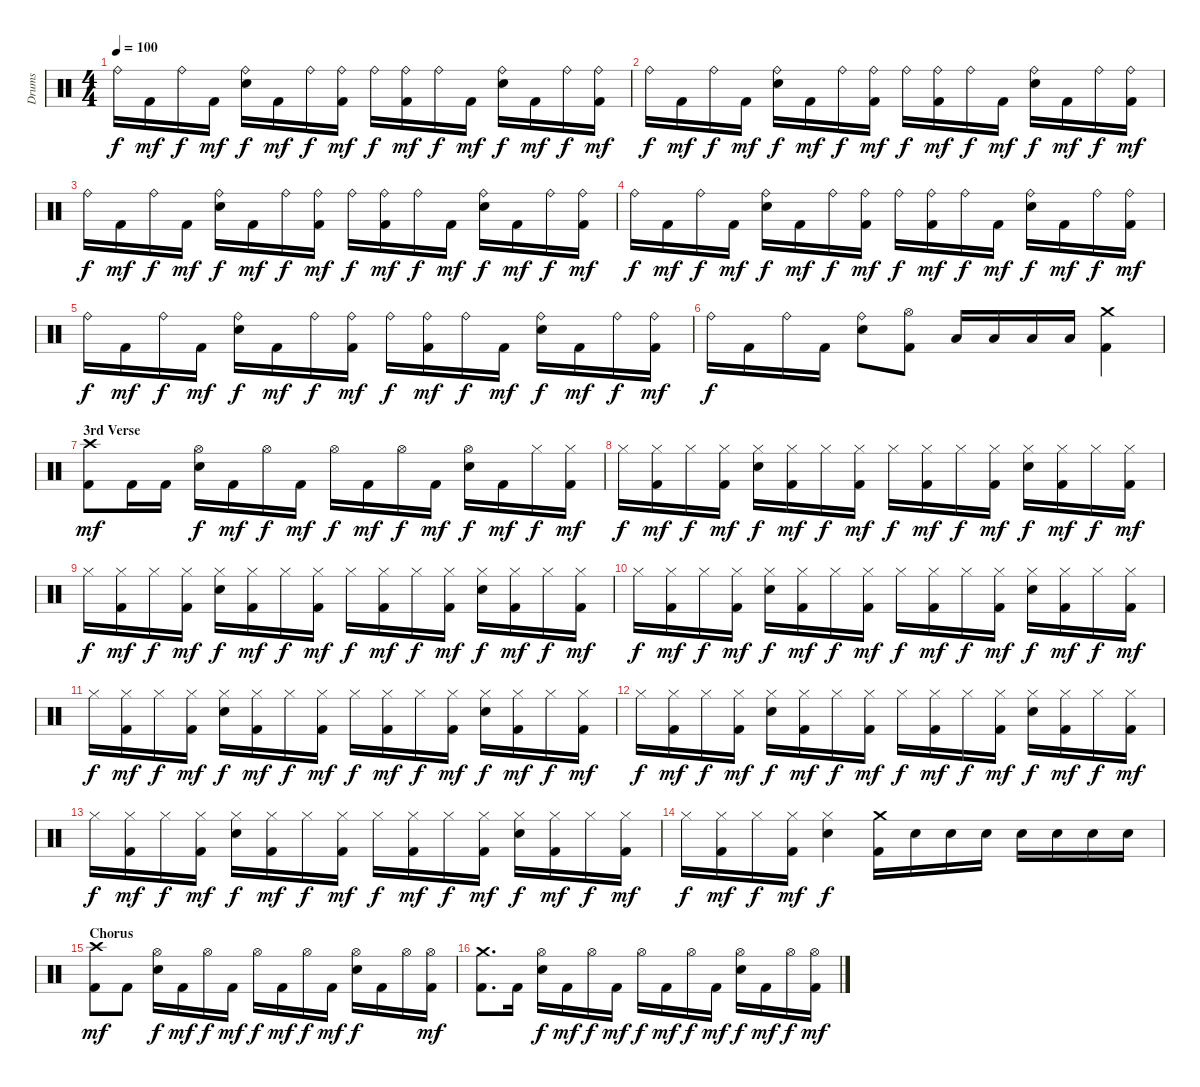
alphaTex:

\track ("Drums" "Drums") {instrument percussion}
\staff {score}
\articulation defaults
\ts (4 4)
\tempo 100
\clef neutral
\ks c "Ride (bell)".16{dy f} "Kick (hit) 2".16{dy mf} "Ride (bell)".16{dy f} "Kick (hit) 2".16{dy mf}
("Snare (hit) 2" "Ride (bell)").16{dy f} "Kick (hit) 2".16{dy mf} "Ride (bell)".16{dy f} ("Kick (hit) 2" "Ride (bell)").16{dy mf} "Ride (bell)".16{dy f} ("Kick (hit) 2" "Ride (bell)").16{dy mf} "Ride (bell)".16{dy f} "Kick (hit) 2".16{dy mf} ("Snare (hit) 2" "Ride (bell)").16{dy f} "Kick (hit) 2".16{dy mf} "Ride (bell)".16{dy f} ("Kick (hit) 2" "Ride (bell)").16{dy mf} |
"Ride (bell)".16{dy f} "Kick (hit) 2".16{dy mf} "Ride (bell)".16{dy f} "Kick (hit) 2".16{dy mf} ("Snare (hit) 2" "Ride (bell)").16{dy f} "Kick (hit) 2".16{dy mf} "Ride (bell)".16{dy f} ("Kick (hit) 2" "Ride (bell)").16{dy mf} "Ride (bell)".16{dy f} ("Kick (hit) 2" "Ride (bell)").16{dy mf} "Ride (bell)".16{dy f} "Kick (hit) 2".16{dy mf} ("Snare (hit) 2" "Ride (bell)").16{dy f} "Kick (hit) 2".16{dy mf} "Ride (bell)".16{dy f} ("Kick (hit) 2" "Ride (bell)").16{dy mf} |
"Ride (bell)".16{dy f} "Kick (hit) 2".16{dy mf} "Ride (bell)".16{dy f} "Kick (hit) 2".16{dy mf} ("Snare (hit) 2" "Ride (bell)").16{dy f} "Kick (hit) 2".16{dy mf} "Ride (bell)".16{dy f} ("Kick (hit) 2" "Ride (bell)").16{dy mf} "Ride (bell)".16{dy f} ("Kick (hit) 2" "Ride (bell)").16{dy mf} "Ride (bell)".16{dy f} "Kick (hit) 2".16{dy mf} ("Snare (hit) 2" "Ride (bell)").16{dy f} "Kick (hit) 2".16{dy mf} "Ride (bell)".16{dy f} ("Kick (hit) 2" "Ride (bell)").16{dy mf} |
"Ride (bell)".16{dy f} "Kick (hit) 2".16{dy mf} "Ride (bell)".16{dy f} "Kick (hit) 2".16{dy mf} ("Snare (hit) 2" "Ride (bell)").16{dy f} "Kick (hit) 2".16{dy mf} "Ride (bell)".16{dy f} ("Kick (hit) 2" "Ride (bell)").16{dy mf} "Ride (bell)".16{dy f} ("Kick (hit) 2" "Ride (bell)").16{dy mf} "Ride (bell)".16{dy f} "Kick (hit) 2".16{dy mf} ("Snare (hit) 2" "Ride (bell)").16{dy f} "Kick (hit) 2".16{dy mf} "Ride (bell)".16{dy f} ("Kick (hit) 2" "Ride (bell)").16{dy mf} |
"Ride (bell)".16{dy f} "Kick (hit) 2".16{dy mf} "Ride (bell)".16{dy f} "Kick (hit) 2".16{dy mf} ("Snare (hit) 2" "Ride (bell)").16{dy f} "Kick (hit) 2".16{dy mf} "Ride (bell)".16{dy f} ("Kick (hit) 2" "Ride (bell)").16{dy mf} "Ride (bell)".16{dy f} ("Kick (hit) 2" "Ride (bell)").16{dy mf} "Ride (bell)".16{dy f} "Kick (hit) 2".16{dy mf} ("Snare (hit) 2" "Ride (bell)").16{dy f} "Kick (hit) 2".16{dy mf} "Ride (bell)".16{dy f} ("Kick (hit) 2" "Ride (bell)").16{dy mf} |
"Ride (bell)".16{dy f} "Kick (hit) 2".16 "Ride (bell)".16 "Kick (hit) 2".16 ("Snare (hit) 2" "Ride (bell)").8 ("Kick (hit) 2" "Hi-Hat (open)").8 "Low Tom (hit)".16 "Low Tom (hit)".16 "Low Tom (hit)".16 "Low Tom (hit)".16 ("Kick (hit) 2" "Crash medium (hit)").4 |
\section ("" "3rd Verse")
("Kick (hit) 2" "Crash high (hit)").8{dy mf} "Kick (hit) 2".16 "Kick (hit) 2".16 ("Snare (hit) 2" "Hi-Hat (open)").16{dy f} "Kick (hit) 2".16{dy mf} "Hi-Hat (open)".16{dy f} "Kick (hit) 2".16{dy mf} "Hi-Hat (open)".16{dy f} "Kick (hit) 2".16{dy mf} "Hi-Hat (open)".16{dy f} "Kick (hit) 2".16{dy mf} ("Snare (hit) 2" "Hi-Hat (open)").16{dy f} "Kick (hit) 2".16{dy mf} "Hi-Hat (closed)".16{dy f} ("Kick (hit) 2" "Hi-Hat (closed)").16{dy mf} |
"Hi-Hat (closed)".16{dy f} ("Kick (hit) 2" "Hi-Hat (closed)").16{dy mf} "Hi-Hat (closed)".16{dy f} ("Kick (hit) 2" "Hi-Hat (closed)").16{dy mf} ("Snare (hit) 2" "Hi-Hat (closed)").16{dy f} ("Kick (hit) 2" "Hi-Hat (closed)").16{dy mf} "Hi-Hat (closed)".16{dy f} ("Kick (hit) 2" "Hi-Hat (closed)").16{dy mf} "Hi-Hat (closed)".16{dy f} ("Kick (hit) 2" "Hi-Hat (closed)").16{dy mf} "Hi-Hat (closed)".16{dy f} ("Kick (hit) 2" "Hi-Hat (closed)").16{dy mf} ("Snare (hit) 2" "Hi-Hat (closed)").16{dy f} ("Kick (hit) 2" "Hi-Hat (closed)").16{dy mf} "Hi-Hat (closed)".16{dy f} ("Kick (hit) 2" "Hi-Hat (closed)").16{dy mf} |
"Hi-Hat (closed)".16{dy f} ("Kick (hit) 2" "Hi-Hat (closed)").16{dy mf} "Hi-Hat (closed)".16{dy f} ("Kick (hit) 2" "Hi-Hat (closed)").16{dy mf} ("Snare (hit) 2" "Hi-Hat (closed)").16{dy f} ("Kick (hit) 2" "Hi-Hat (closed)").16{dy mf} "Hi-Hat (closed)".16{dy f} ("Kick (hit) 2" "Hi-Hat (closed)").16{dy mf} "Hi-Hat (closed)".16{dy f} ("Kick (hit) 2" "Hi-Hat (closed)").16{dy mf} "Hi-Hat (closed)".16{dy f} ("Kick (hit) 2" "Hi-Hat (closed)").16{dy mf} ("Snare (hit) 2" "Hi-Hat (closed)").16{dy f} ("Kick (hit) 2" "Hi-Hat (closed)").16{dy mf} "Hi-Hat (closed)".16{dy f} ("Kick (hit) 2" "Hi-Hat (closed)").16{dy mf} |
"Hi-Hat (closed)".16{dy f} ("Kick (hit) 2" "Hi-Hat (closed)").16{dy mf} "Hi-Hat (closed)".16{dy f} ("Kick (hit) 2" "Hi-Hat (closed)").16{dy mf} ("Snare (hit) 2" "Hi-Hat (closed)").16{dy f} ("Kick (hit) 2" "Hi-Hat (closed)").16{dy mf} "Hi-Hat (closed)".16{dy f} ("Kick (hit) 2" "Hi-Hat (closed)").16{dy mf} "Hi-Hat (closed)".16{dy f} ("Kick (hit) 2" "Hi-Hat (closed)").16{dy mf} "Hi-Hat (closed)".16{dy f} ("Kick (hit) 2" "Hi-Hat (closed)").16{dy mf} ("Snare (hit) 2" "Hi-Hat (closed)").16{dy f} ("Kick (hit) 2" "Hi-Hat (closed)").16{dy mf} "Hi-Hat (closed)".16{dy f} ("Kick (hit) 2" "Hi-Hat (closed)").16{dy mf} |
"Hi-Hat (closed)".16{dy f} ("Kick (hit) 2" "Hi-Hat (closed)").16{dy mf} "Hi-Hat (closed)".16{dy f} ("Kick (hit) 2" "Hi-Hat (closed)").16{dy mf} ("Snare (hit) 2" "Hi-Hat (closed)").16{dy f} ("Kick (hit) 2" "Hi-Hat (closed)").16{dy mf} "Hi-Hat (closed)".16{dy f} ("Kick (hit) 2" "Hi-Hat (closed)").16{dy mf} "Hi-Hat (closed)".16{dy f} ("Kick (hit) 2" "Hi-Hat (closed)").16{dy mf} "Hi-Hat (closed)".16{dy f} ("Kick (hit) 2" "Hi-Hat (closed)").16{dy mf} ("Snare (hit) 2" "Hi-Hat (closed)").16{dy f} ("Kick (hit) 2" "Hi-Hat (closed)").16{dy mf} "Hi-Hat (closed)".16{dy f} ("Kick (hit) 2" "Hi-Hat (closed)").16{dy mf} |
"Hi-Hat (closed)".16{dy f} ("Kick (hit) 2" "Hi-Hat (closed)").16{dy mf} "Hi-Hat (closed)".16{dy f} ("Kick (hit) 2" "Hi-Hat (closed)").16{dy mf} ("Snare (hit) 2" "Hi-Hat (closed)").16{dy f} ("Kick (hit) 2" "Hi-Hat (closed)").16{dy mf} "Hi-Hat (closed)".16{dy f} ("Kick (hit) 2" "Hi-Hat (closed)").16{dy mf} "Hi-Hat (closed)".16{dy f} ("Kick (hit) 2" "Hi-Hat (closed)").16{dy mf} "Hi-Hat (closed)".16{dy f} ("Kick (hit) 2" "Hi-Hat (closed)").16{dy mf} ("Snare (hit) 2" "Hi-Hat (closed)").16{dy f} ("Kick (hit) 2" "Hi-Hat (closed)").16{dy mf} "Hi-Hat (closed)".16{dy f} ("Kick (hit) 2" "Hi-Hat (closed)").16{dy mf} |
"Hi-Hat (closed)".16{dy f} ("Kick (hit) 2" "Hi-Hat (closed)").16{dy mf} "Hi-Hat (closed)".16{dy f} ("Kick (hit) 2" "Hi-Hat (closed)").16{dy mf} ("Snare (hit) 2" "Hi-Hat (closed)").16{dy f} ("Kick (hit) 2" "Hi-Hat (closed)").16{dy mf} "Hi-Hat (closed)".16{dy f} ("Kick (hit) 2" "Hi-Hat (closed)").16{dy mf} "Hi-Hat (closed)".16{dy f} ("Kick (hit) 2" "Hi-Hat (closed)").16{dy mf} "Hi-Hat (closed)".16{dy f} ("Kick (hit) 2" "Hi-Hat (closed)").16{dy mf} ("Snare (hit) 2" "Hi-Hat (closed)").16{dy f} ("Kick (hit) 2" "Hi-Hat (closed)").16{dy mf} "Hi-Hat (closed)".16{dy f} ("Kick (hit) 2" "Hi-Hat (closed)").16{dy mf} |
"Hi-Hat (closed)".16{dy f} ("Kick (hit) 2" "Hi-Hat (closed)").16{dy mf} "Hi-Hat (closed)".16{dy f} ("Kick (hit) 2" "Hi-Hat (closed)").16{dy mf} ("Snare (hit) 2" "Hi-Hat (closed)").4{dy f} ("Kick (hit) 2" "Crash medium (hit)").16 "Snare (hit) 2".16 "Snare (hit) 2".16 "Snare (hit) 2".16 "Snare (hit) 2".16 "Snare (hit) 2".16 "Snare (hit) 2".16 "Snare (hit) 2".16 |
\section ("" "Chorus")
("Kick (hit) 2" "Crash high (hit)").8{dy mf} "Kick (hit) 2".8 ("Snare (hit) 2" "Hi-Hat (open)").16{dy f} "Kick (hit) 2".16{dy mf} "Hi-Hat (open)".16{dy f} "Kick (hit) 2".16{dy mf} "Hi-Hat (open)".16{dy f} "Kick (hit) 2".16{dy mf} "Hi-Hat (open)".16{dy f} "Kick (hit) 2".16{dy mf} ("Snare (hit) 2" "Hi-Hat (open)").16{dy f} "Kick (hit) 2".16 "Hi-Hat (open)".16 ("Kick (hit) 2" "Hi-Hat (open)").16{dy mf} |
("Kick (hit) 2" "Crash medium (hit)").8{d} "Kick (hit) 2".16 ("Snare (hit) 2" "Hi-Hat (open)").16{dy f} "Kick (hit) 2".16{dy mf} "Hi-Hat (open)".16{dy f} "Kick (hit) 2".16{dy mf} "Hi-Hat (open)".16{dy f} "Kick (hit) 2".16{dy mf} "Hi-Hat (open)".16{dy f} "Kick (hit) 2".16{dy mf} ("Snare (hit) 2" "Hi-Hat (open)").16{dy f} "Kick (hit) 2".16{dy mf} "Hi-Hat (open)".16{dy f} ("Kick (hit) 2" "Hi-Hat (open)").16{dy mf}
